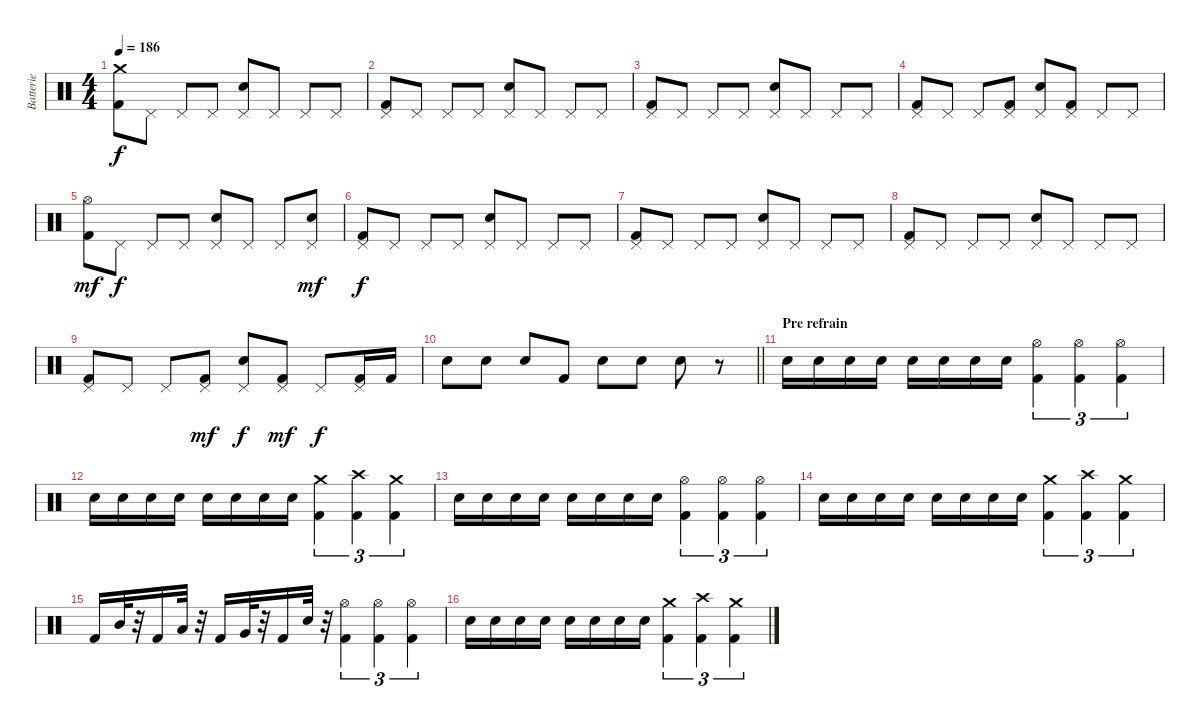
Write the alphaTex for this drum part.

\track ("Batterie" "Batterie") {instrument percussion}
\staff {score}
\articulation defaults
\ts (4 4)
\tempo 186
\clef neutral
\ks c
("Kick (hit) 2" "Crash medium (hit)").8{dy f} "Pedal Hi-Hat (hit)".8 "Pedal Hi-Hat (hit)".8 "Pedal Hi-Hat (hit)".8 ("Electric Snare (hit)" "Pedal Hi-Hat (hit)").8 "Pedal Hi-Hat (hit)".8 "Pedal Hi-Hat (hit)".8 "Pedal Hi-Hat (hit)".8 |
("Kick (hit) 2" "Pedal Hi-Hat (hit)").8 "Pedal Hi-Hat (hit)".8 "Pedal Hi-Hat (hit)".8 "Pedal Hi-Hat (hit)".8 ("Electric Snare (hit)" "Pedal Hi-Hat (hit)").8 "Pedal Hi-Hat (hit)".8 "Pedal Hi-Hat (hit)".8 "Pedal Hi-Hat (hit)".8 |
("Kick (hit) 2" "Pedal Hi-Hat (hit)").8 "Pedal Hi-Hat (hit)".8 "Pedal Hi-Hat (hit)".8 "Pedal Hi-Hat (hit)".8 ("Electric Snare (hit)" "Pedal Hi-Hat (hit)").8 "Pedal Hi-Hat (hit)".8 "Pedal Hi-Hat (hit)".8 "Pedal Hi-Hat (hit)".8 |
("Kick (hit) 2" "Pedal Hi-Hat (hit)").8 "Pedal Hi-Hat (hit)".8 "Pedal Hi-Hat (hit)".8 ("Kick (hit) 2" "Pedal Hi-Hat (hit)").8 ("Electric Snare (hit)" "Pedal Hi-Hat (hit)").8 ("Kick (hit) 2" "Pedal Hi-Hat (hit)").8 "Pedal Hi-Hat (hit)".8 "Pedal Hi-Hat (hit)".8 |
("Kick (hit) 2" "Hi-Hat (open)").8{dy mf} "Pedal Hi-Hat (hit)".8{dy f} "Pedal Hi-Hat (hit)".8 "Pedal Hi-Hat (hit)".8 ("Electric Snare (hit)" "Pedal Hi-Hat (hit)").8 "Pedal Hi-Hat (hit)".8 "Pedal Hi-Hat (hit)".8 ("Electric Snare (hit)" "Pedal Hi-Hat (hit)").8{dy mf} |
("Kick (hit) 2" "Pedal Hi-Hat (hit)").8{dy f} "Pedal Hi-Hat (hit)".8 "Pedal Hi-Hat (hit)".8 "Pedal Hi-Hat (hit)".8 ("Electric Snare (hit)" "Pedal Hi-Hat (hit)").8 "Pedal Hi-Hat (hit)".8 "Pedal Hi-Hat (hit)".8 "Pedal Hi-Hat (hit)".8 |
("Kick (hit) 2" "Pedal Hi-Hat (hit)").8 "Pedal Hi-Hat (hit)".8 "Pedal Hi-Hat (hit)".8 "Pedal Hi-Hat (hit)".8 ("Electric Snare (hit)" "Pedal Hi-Hat (hit)").8 "Pedal Hi-Hat (hit)".8 "Pedal Hi-Hat (hit)".8 "Pedal Hi-Hat (hit)".8 |
("Kick (hit) 2" "Pedal Hi-Hat (hit)").8 "Pedal Hi-Hat (hit)".8 "Pedal Hi-Hat (hit)".8 "Pedal Hi-Hat (hit)".8 ("Electric Snare (hit)" "Pedal Hi-Hat (hit)").8 "Pedal Hi-Hat (hit)".8 "Pedal Hi-Hat (hit)".8 "Pedal Hi-Hat (hit)".8 |
("Kick (hit) 2" "Pedal Hi-Hat (hit)").8 "Pedal Hi-Hat (hit)".8 "Pedal Hi-Hat (hit)".8 ("Kick (hit) 2" "Pedal Hi-Hat (hit)").8{dy mf} ("Electric Snare (hit)" "Pedal Hi-Hat (hit)").8{dy f} ("Kick (hit) 2" "Pedal Hi-Hat (hit)").8{dy mf} "Pedal Hi-Hat (hit)".8{dy f} ("Kick (hit) 2" "Pedal Hi-Hat (hit)").16 "Kick (hit) 2".16 |
\barLineRight lightlight "Electric Snare (hit)".8 "Electric Snare (hit)".8 "Electric Snare (hit)".8 "Kick (hit) 2".8 "Electric Snare (hit)".8 "Electric Snare (hit)".8 "Electric Snare (hit)".8
r.8 |
\section ("" "Pre refrain")
"Electric Snare (hit)".16 "Electric Snare (hit)".16 "Electric Snare (hit)".16 "Electric Snare (hit)".16 "Electric Snare (hit)".16 "Electric Snare (hit)".16 "Electric Snare (hit)".16 "Electric Snare (hit)".16 ("Kick (hit) 2" "Hi-Hat (open)").4{tu (3 2)} ("Kick (hit) 2" "Hi-Hat (open)").4{tu (3 2)} ("Kick (hit) 2" "Hi-Hat (open)").4{tu (3 2)} |
"Electric Snare (hit)".16 "Electric Snare (hit)".16 "Electric Snare (hit)".16 "Electric Snare (hit)".16 "Electric Snare (hit)".16 "Electric Snare (hit)".16 "Electric Snare (hit)".16 "Electric Snare (hit)".16 ("Kick (hit) 2" "Crash medium (hit)").4{tu (3 2)} ("Kick (hit) 2" "Crash high (hit)").4{tu (3 2)} ("Kick (hit) 2" "Crash medium (hit)").4{tu (3 2)} |
"Electric Snare (hit)".16 "Electric Snare (hit)".16 "Electric Snare (hit)".16 "Electric Snare (hit)".16 "Electric Snare (hit)".16 "Electric Snare (hit)".16 "Electric Snare (hit)".16 "Electric Snare (hit)".16 ("Kick (hit) 2" "Hi-Hat (open)").4{tu (3 2)} ("Kick (hit) 2" "Hi-Hat (open)").4{tu (3 2)} ("Kick (hit) 2" "Hi-Hat (open)").4{tu (3 2)} |
"Electric Snare (hit)".16 "Electric Snare (hit)".16 "Electric Snare (hit)".16 "Electric Snare (hit)".16 "Electric Snare (hit)".16 "Electric Snare (hit)".16 "Electric Snare (hit)".16 "Electric Snare (hit)".16 ("Kick (hit) 2" "Crash medium (hit)").4{tu (3 2)} ("Kick (hit) 2" "Crash high (hit)").4{tu (3 2)} ("Kick (hit) 2" "Crash medium (hit)").4{tu (3 2)} |
"Kick (hit) 2".16 "Mid Tom (hit)".32 r.32 "Kick (hit) 2".16 "Low Tom (hit)".32 r.32 "Kick (hit) 2".16 "Very Low Tom (hit)".32 r.32 "Kick (hit) 2".16 "Electric Snare (hit)".32 r.32 ("Kick (hit) 2" "Hi-Hat (open)").4{tu (3 2)} ("Kick (hit) 2" "Hi-Hat (open)").4{tu (3 2)} ("Kick (hit) 2" "Hi-Hat (open)").4{tu (3 2)} |
"Electric Snare (hit)".16 "Electric Snare (hit)".16 "Electric Snare (hit)".16 "Electric Snare (hit)".16 "Electric Snare (hit)".16 "Electric Snare (hit)".16 "Electric Snare (hit)".16 "Electric Snare (hit)".16 ("Kick (hit) 2" "Crash medium (hit)").4{tu (3 2)} ("Kick (hit) 2" "Crash high (hit)").4{tu (3 2)} ("Kick (hit) 2" "Crash medium (hit)").4{tu (3 2)}
